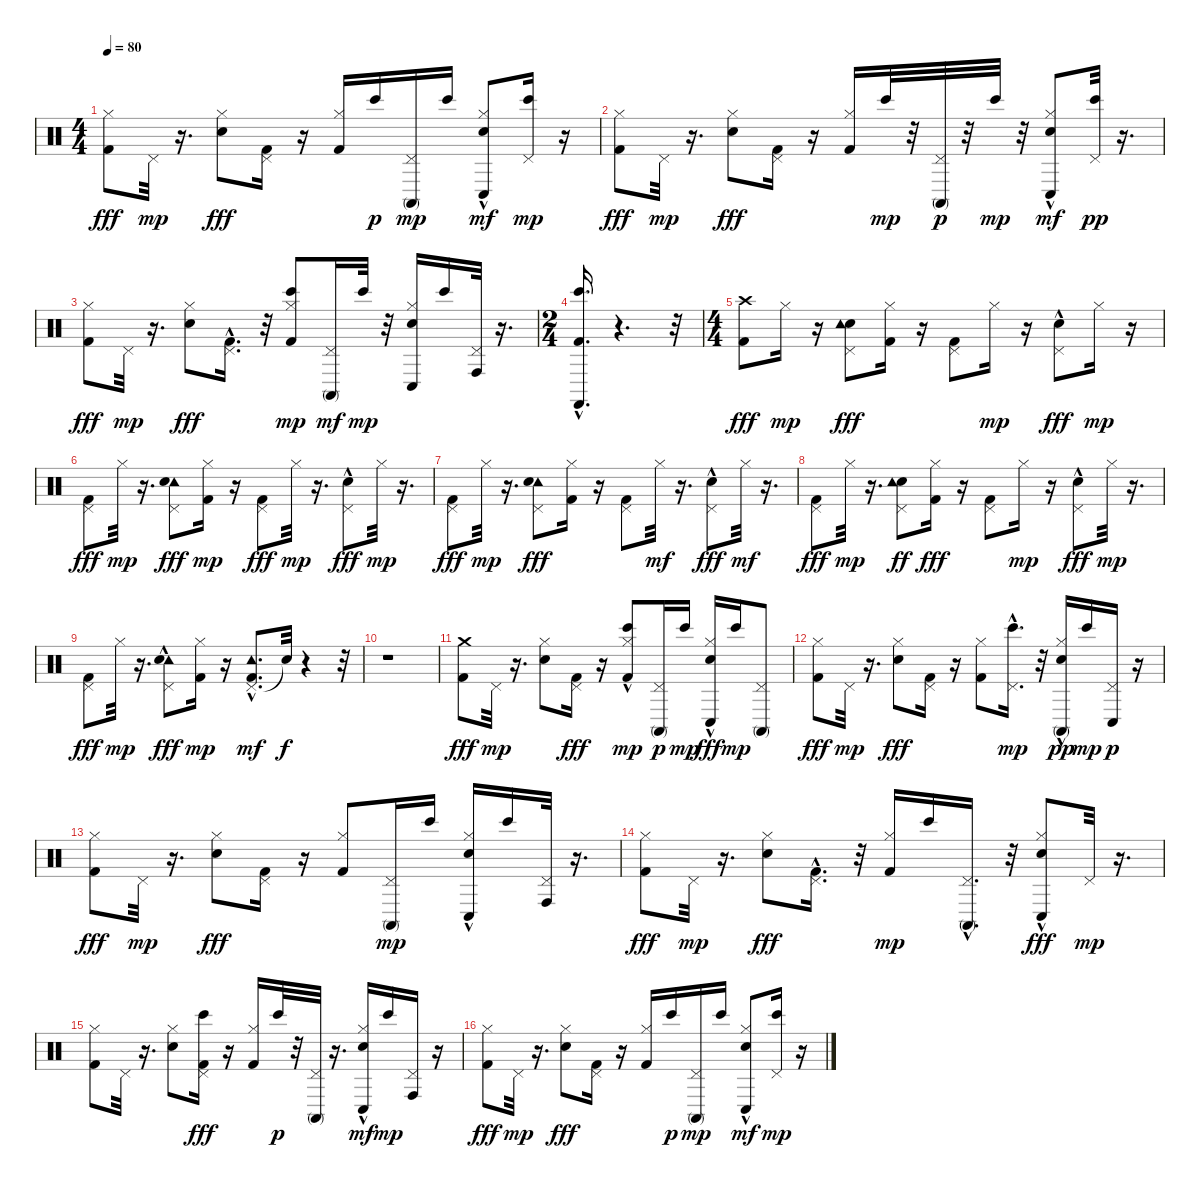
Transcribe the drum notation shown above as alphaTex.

\track "" {instrument percussion}
\staff {score}
\articulation defaults
\ts (4 4)
\tempo 80
\clef neutral
\ks c
("Hi-Hat (closed)" "Kick (hit) 2").8{dy fff} "Pedal Hi-Hat (hit)".32{dy mp} r.16{d} ("Hi-Hat (closed)" "Snare (hit) 2").8{dy fff} ("Pedal Hi-Hat (hit)" "Kick (hit) 2").16 r.16 ("Hi-Hat (closed)" "Kick (hit) 2").16 "Bongo High (hit)".16{dy p} ("Pedal Hi-Hat (hit)" "Conga high (mute)").16{dy mp} "Bongo High (hit)".16 ("Hi-Hat (closed)" "Snare (hit) 2"{hac} "Conga low (hit)").8{dy mf} ("Pedal Hi-Hat (hit)" "Bongo High (hit)").16{dy mp} r.16 |
("Hi-Hat (closed)" "Kick (hit) 2").8{dy fff} "Pedal Hi-Hat (hit)".32{dy mp} r.16{d} ("Hi-Hat (closed)" "Snare (hit) 2").8{dy fff} ("Pedal Hi-Hat (hit)" "Kick (hit) 2").16 r.16 ("Hi-Hat (closed)" "Kick (hit) 2").16 "Bongo High (hit)".32{dy mp} r.32 ("Pedal Hi-Hat (hit)" "Conga high (mute)").32{dy p} r.32 "Bongo High (hit)".32{dy mp} r.32 ("Hi-Hat (closed)" "Snare (hit) 2"{hac} "Conga low (hit)").8{dy mf} ("Pedal Hi-Hat (hit)" "Bongo High (hit)").32{dy pp} r.16{d} |
("Hi-Hat (closed)" "Kick (hit) 2").8{dy fff} "Pedal Hi-Hat (hit)".32{dy mp} r.16{d} ("Hi-Hat (closed)" "Snare (hit) 2").8{dy fff} ("Pedal Hi-Hat (hit)" "Kick (hit) 2"{hac}).16{d} r.32 ("Kick (hit) 2" "Hi-Hat (closed)" "Bongo High (hit)").8{dy mp} ("Pedal Hi-Hat (hit)" "Conga high (mute)").16{dy mf} "Bongo High (hit)".32{dy mp} r.32 ("Hi-Hat (closed)" "Snare (hit) 2" "Conga low (hit)").16 "Bongo High (hit)".16 ("Pedal Hi-Hat (hit)" "Conga high (hit)").32 r.16{d} |
\ts (2 4)
("Kick (hit) 2"{hac} "Castanets (hit)" "Bongo High (hit)").16{d} r.4{d} r.32 |
\ts (4 4)
("Crash high (hit)" "Kick (hit) 2").8{dy fff} "Hi-Hat (closed)".16{dy mp} r.16 ("Pedal Hi-Hat (hit)" "Snare (hit) 2" "Tambourine (hit)").8{dy fff} ("Hi-Hat (closed)" "Kick (hit) 2").16 r.16 ("Pedal Hi-Hat (hit)" "Kick (hit) 2").8 "Hi-Hat (closed)".16{dy mp} r.16 ("Pedal Hi-Hat (hit)" "Snare (hit) 2"{hac}).8{dy fff} "Hi-Hat (closed)".16{dy mp} r.16 |
("Pedal Hi-Hat (hit)" "Kick (hit) 2").8{dy fff} "Hi-Hat (closed)".32{dy mp} r.16{d} ("Tambourine (hit)" "Pedal Hi-Hat (hit)" "Snare (hit) 2").8{dy fff} ("Kick (hit) 2" "Hi-Hat (closed)").16{dy mp} r.16 ("Pedal Hi-Hat (hit)" "Kick (hit) 2").8{dy fff} "Hi-Hat (closed)".32{dy mp} r.16{d} ("Pedal Hi-Hat (hit)" "Snare (hit) 2"{hac}).8{dy fff} "Hi-Hat (closed)".32{dy mp} r.16{d} |
("Pedal Hi-Hat (hit)" "Kick (hit) 2").8{dy fff} "Hi-Hat (closed)".32{dy mp} r.16{d} ("Tambourine (hit)" "Pedal Hi-Hat (hit)" "Snare (hit) 2").8{dy fff} ("Hi-Hat (closed)" "Kick (hit) 2").16 r.16 ("Pedal Hi-Hat (hit)" "Kick (hit) 2").8 "Hi-Hat (closed)".32{dy mf} r.16{d} ("Pedal Hi-Hat (hit)" "Snare (hit) 2"{hac}).8{dy fff} "Hi-Hat (closed)".32{dy mf} r.16{d} |
("Pedal Hi-Hat (hit)" "Kick (hit) 2").8{dy fff} "Hi-Hat (closed)".32{dy mp} r.16{d} ("Pedal Hi-Hat (hit)" "Snare (hit) 2" "Tambourine (hit)").8{dy ff} ("Hi-Hat (closed)" "Kick (hit) 2").16{dy fff} r.16 ("Pedal Hi-Hat (hit)" "Kick (hit) 2").8 "Hi-Hat (closed)".16{dy mp} r.16 ("Pedal Hi-Hat (hit)" "Snare (hit) 2"{hac}).8{dy fff} "Hi-Hat (closed)".32{dy mp} r.16{d} |
("Pedal Hi-Hat (hit)" "Kick (hit) 2").8{dy fff} "Hi-Hat (closed)".32{dy mp} r.16{d} ("Tambourine (hit)"{hac} "Pedal Hi-Hat (hit)" "Snare (hit) 2").8{dy fff} ("Kick (hit) 2" "Hi-Hat (closed)").16{dy mp} r.16 ("Pedal Hi-Hat (hit)" "Kick (hit) 2"{hac} "Tambourine (hit)"{hac}).8{d dy mf} "Snare (hit)"{t}.32{dy f} r.4 r.32 |
r.1 |
("Crash medium (hit)" "Kick (hit) 2").8{dy fff} "Pedal Hi-Hat (hit)".32{dy mp} r.16{d} ("Snare (hit) 2" "Hi-Hat (closed)").8 ("Pedal Hi-Hat (hit)" "Kick (hit) 2").16{dy fff} r.16 ("Hi-Hat (closed)" "Kick (hit) 2" "Bongo High (hit)"{hac}).8{dy mp} ("Pedal Hi-Hat (hit)" "Conga high (mute)").16{dy p} "Bongo High (hit)".16{dy mp} ("Conga low (hit)" "Hi-Hat (closed)" "Snare (hit) 2"{hac}).16{dy fff} "Bongo High (hit)".16{dy mp} ("Conga high (mute)" "Pedal Hi-Hat (hit)").8 |
("Hi-Hat (closed)" "Kick (hit) 2").8{dy fff} "Pedal Hi-Hat (hit)".32{dy mp} r.16{d} ("Hi-Hat (closed)" "Snare (hit) 2").8{dy fff} ("Pedal Hi-Hat (hit)" "Kick (hit) 2").16 r.16 ("Hi-Hat (closed)" "Kick (hit) 2").8 ("Bongo High (hit)"{hac} "Pedal Hi-Hat (hit)").16{d dy mp} r.32 ("Hi-Hat (closed)" "Snare (hit) 2"{hac} "Conga high (mute)").16{dy pp} "Bongo High (hit)".16{dy mp} ("Pedal Hi-Hat (hit)" "Conga low (hit)").16{dy p} r.16 |
("Hi-Hat (closed)" "Kick (hit) 2").8{dy fff} "Pedal Hi-Hat (hit)".32{dy mp} r.16{d} ("Hi-Hat (closed)" "Snare (hit) 2").8{dy fff} ("Pedal Hi-Hat (hit)" "Kick (hit) 2").16 r.16 ("Hi-Hat (closed)" "Kick (hit) 2").8 ("Conga high (mute)" "Pedal Hi-Hat (hit)").16{dy mp} "Bongo High (hit)".16 ("Hi-Hat (closed)" "Snare (hit) 2"{hac} "Conga low (hit)").16 "Bongo High (hit)".16 ("Pedal Hi-Hat (hit)" "Conga high (hit)").32 r.16{d} |
("Hi-Hat (closed)" "Kick (hit) 2").8{dy fff} "Pedal Hi-Hat (hit)".32{dy mp} r.16{d} ("Hi-Hat (closed)" "Snare (hit) 2").8{dy fff} ("Pedal Hi-Hat (hit)" "Kick (hit) 2"{hac}).16{d} r.32 ("Kick (hit) 2" "Hi-Hat (closed)").16{dy mp} "Bongo High (hit)".16 ("Pedal Hi-Hat (hit)" "Conga high (mute)"{hac}).16{d} r.32 ("Conga low (hit)"{hac} "Hi-Hat (closed)" "Snare (hit) 2").8{dy fff} "Pedal Hi-Hat (hit)".32{dy mp} r.16{d} |
("Kick (hit) 2" "Hi-Hat (closed)").8 "Pedal Hi-Hat (hit)".32 r.16{d} ("Snare (hit) 2" "Hi-Hat (closed)").8 ("Bongo High (hit)" "Pedal Hi-Hat (hit)" "Kick (hit) 2").16{dy fff} r.16 ("Hi-Hat (closed)" "Kick (hit) 2").16 "Bongo High (hit)".32{dy p} r.32 ("Pedal Hi-Hat (hit)" "Conga high (mute)").32 r.16{d} ("Hi-Hat (closed)" "Snare (hit) 2"{hac} "Conga low (hit)").16{dy mf} "Bongo High (hit)".16{dy mp} ("Pedal Hi-Hat (hit)" "Conga high (hit)").16 r.16 |
("Hi-Hat (closed)" "Kick (hit) 2").8{dy fff} "Pedal Hi-Hat (hit)".32{dy mp} r.16{d} ("Hi-Hat (closed)" "Snare (hit) 2").8{dy fff} ("Pedal Hi-Hat (hit)" "Kick (hit) 2").16 r.16 ("Hi-Hat (closed)" "Kick (hit) 2").16 "Bongo High (hit)".16{dy p} ("Pedal Hi-Hat (hit)" "Conga high (mute)").16{dy mp} "Bongo High (hit)".16 ("Hi-Hat (closed)" "Snare (hit) 2"{hac} "Conga low (hit)").8{dy mf} ("Pedal Hi-Hat (hit)" "Bongo High (hit)").16{dy mp} r.16
